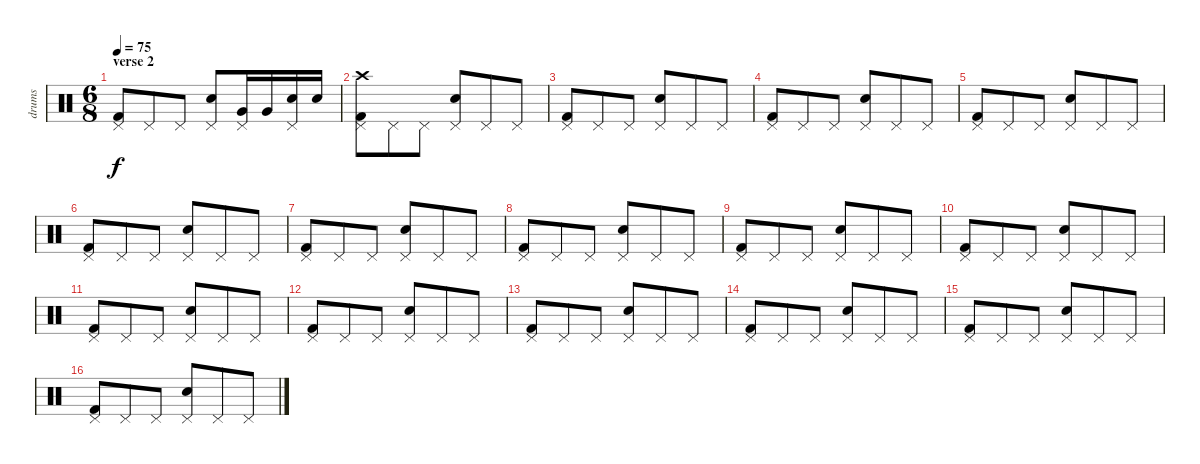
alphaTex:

\track ("drums" "drums") {instrument percussion}
\staff {score}
\articulation defaults
\ts (6 8)
\section ("" "verse 2")
\tempo 75
\clef neutral
\ks c
("Kick (hit) 2" "Pedal Hi-Hat (hit)").8{dy f} "Pedal Hi-Hat (hit)".8 "Pedal Hi-Hat (hit)".8 ("Electric Snare (hit)" "Pedal Hi-Hat (hit)").8 ("Very Low Tom (hit)" "Pedal Hi-Hat (hit)").16 "Very Low Tom (hit)".16 ("Electric Snare (hit)" "Pedal Hi-Hat (hit)").16 "Electric Snare (hit)".16 |
("Kick (hit) 2" "Pedal Hi-Hat (hit)" "Crash high (hit)").8 "Pedal Hi-Hat (hit)".8 "Pedal Hi-Hat (hit)".8 ("Electric Snare (hit)" "Pedal Hi-Hat (hit)").8 "Pedal Hi-Hat (hit)".8 "Pedal Hi-Hat (hit)".8 |
("Kick (hit) 2" "Pedal Hi-Hat (hit)").8 "Pedal Hi-Hat (hit)".8 "Pedal Hi-Hat (hit)".8 ("Electric Snare (hit)" "Pedal Hi-Hat (hit)").8 "Pedal Hi-Hat (hit)".8 "Pedal Hi-Hat (hit)".8 |
("Kick (hit) 2" "Pedal Hi-Hat (hit)").8 "Pedal Hi-Hat (hit)".8 "Pedal Hi-Hat (hit)".8 ("Electric Snare (hit)" "Pedal Hi-Hat (hit)").8 "Pedal Hi-Hat (hit)".8 "Pedal Hi-Hat (hit)".8 |
("Kick (hit) 2" "Pedal Hi-Hat (hit)").8 "Pedal Hi-Hat (hit)".8 "Pedal Hi-Hat (hit)".8 ("Electric Snare (hit)" "Pedal Hi-Hat (hit)").8 "Pedal Hi-Hat (hit)".8 "Pedal Hi-Hat (hit)".8 |
("Kick (hit) 2" "Pedal Hi-Hat (hit)").8 "Pedal Hi-Hat (hit)".8 "Pedal Hi-Hat (hit)".8 ("Electric Snare (hit)" "Pedal Hi-Hat (hit)").8 "Pedal Hi-Hat (hit)".8 "Pedal Hi-Hat (hit)".8 |
("Kick (hit) 2" "Pedal Hi-Hat (hit)").8 "Pedal Hi-Hat (hit)".8 "Pedal Hi-Hat (hit)".8 ("Electric Snare (hit)" "Pedal Hi-Hat (hit)").8 "Pedal Hi-Hat (hit)".8 "Pedal Hi-Hat (hit)".8 |
("Kick (hit) 2" "Pedal Hi-Hat (hit)").8 "Pedal Hi-Hat (hit)".8 "Pedal Hi-Hat (hit)".8 ("Electric Snare (hit)" "Pedal Hi-Hat (hit)").8 "Pedal Hi-Hat (hit)".8 "Pedal Hi-Hat (hit)".8 |
("Kick (hit) 2" "Pedal Hi-Hat (hit)").8 "Pedal Hi-Hat (hit)".8 "Pedal Hi-Hat (hit)".8 ("Electric Snare (hit)" "Pedal Hi-Hat (hit)").8 "Pedal Hi-Hat (hit)".8 "Pedal Hi-Hat (hit)".8 |
("Kick (hit) 2" "Pedal Hi-Hat (hit)").8 "Pedal Hi-Hat (hit)".8 "Pedal Hi-Hat (hit)".8 ("Electric Snare (hit)" "Pedal Hi-Hat (hit)").8 "Pedal Hi-Hat (hit)".8 "Pedal Hi-Hat (hit)".8 |
("Kick (hit) 2" "Pedal Hi-Hat (hit)").8 "Pedal Hi-Hat (hit)".8 "Pedal Hi-Hat (hit)".8 ("Electric Snare (hit)" "Pedal Hi-Hat (hit)").8 "Pedal Hi-Hat (hit)".8 "Pedal Hi-Hat (hit)".8 |
("Kick (hit) 2" "Pedal Hi-Hat (hit)").8 "Pedal Hi-Hat (hit)".8 "Pedal Hi-Hat (hit)".8 ("Electric Snare (hit)" "Pedal Hi-Hat (hit)").8 "Pedal Hi-Hat (hit)".8 "Pedal Hi-Hat (hit)".8 |
("Kick (hit) 2" "Pedal Hi-Hat (hit)").8 "Pedal Hi-Hat (hit)".8 "Pedal Hi-Hat (hit)".8 ("Electric Snare (hit)" "Pedal Hi-Hat (hit)").8 "Pedal Hi-Hat (hit)".8 "Pedal Hi-Hat (hit)".8 |
("Kick (hit) 2" "Pedal Hi-Hat (hit)").8 "Pedal Hi-Hat (hit)".8 "Pedal Hi-Hat (hit)".8 ("Electric Snare (hit)" "Pedal Hi-Hat (hit)").8 "Pedal Hi-Hat (hit)".8 "Pedal Hi-Hat (hit)".8 |
("Kick (hit) 2" "Pedal Hi-Hat (hit)").8 "Pedal Hi-Hat (hit)".8 "Pedal Hi-Hat (hit)".8 ("Electric Snare (hit)" "Pedal Hi-Hat (hit)").8 "Pedal Hi-Hat (hit)".8 "Pedal Hi-Hat (hit)".8 |
("Kick (hit) 2" "Pedal Hi-Hat (hit)").8 "Pedal Hi-Hat (hit)".8 "Pedal Hi-Hat (hit)".8 ("Electric Snare (hit)" "Pedal Hi-Hat (hit)").8 "Pedal Hi-Hat (hit)".8 "Pedal Hi-Hat (hit)".8
